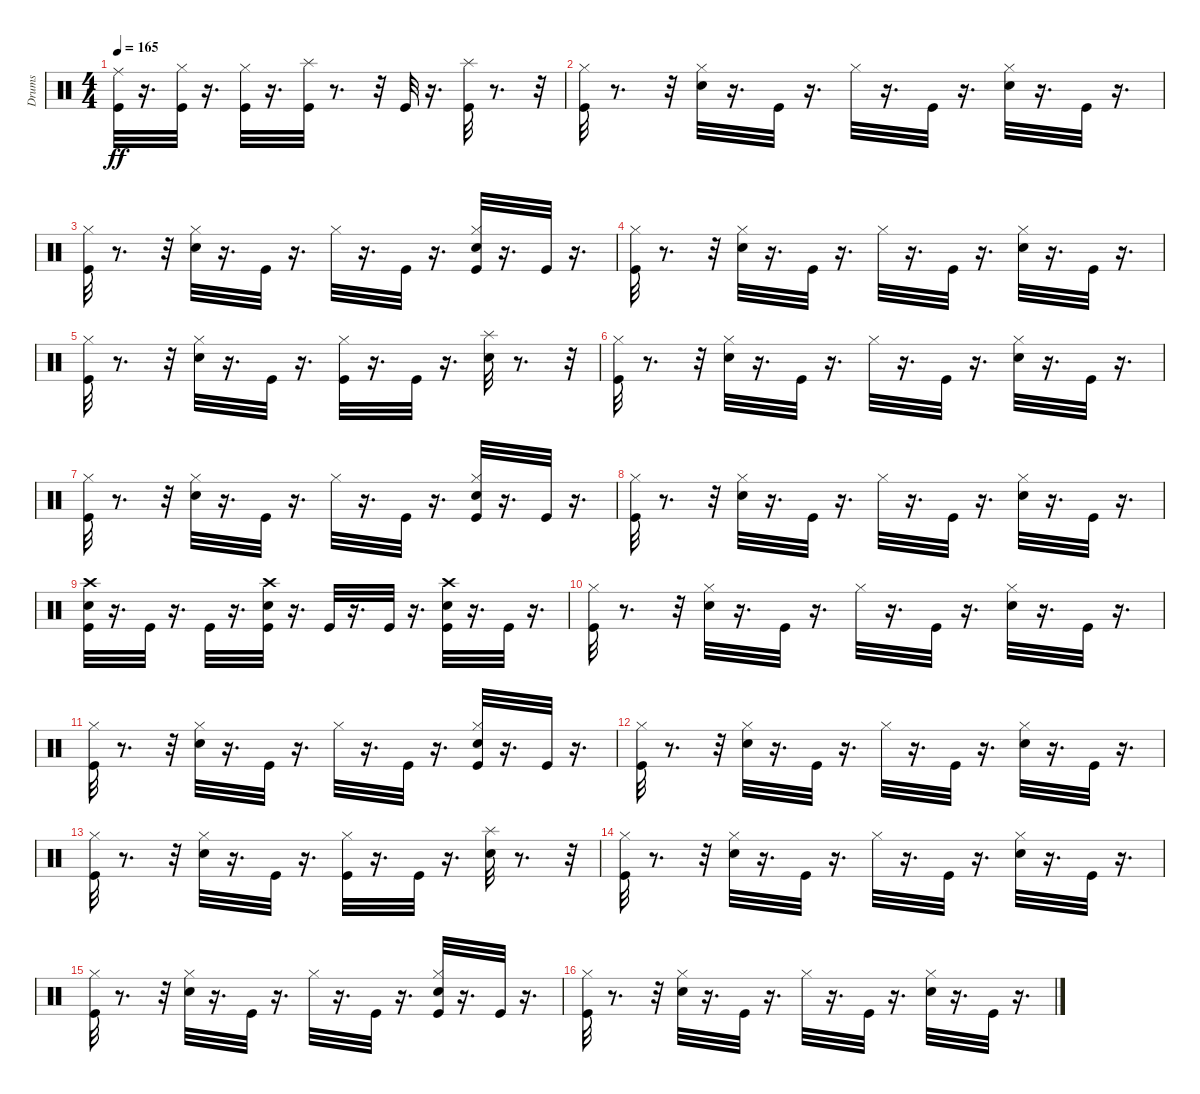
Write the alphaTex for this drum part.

\track ("Drums" "Drums") {instrument percussion}
\staff {score}
\articulation defaults
\ts (4 4)
\tempo 165
\clef neutral
\ks c
("Ride (middle)" "Kick (hit)").32{dy ff} r.16{d} ("Hi-Hat (closed)" "Kick (hit)").32 r.16{d} ("Kick (hit)" "Hi-Hat (closed)").32 r.16{d} ("Splash (hit)" "Kick (hit)").32 r.8{d} r.32 "Kick (hit)".32 r.16{d} ("Kick (hit)" "Splash (hit)").32 r.8{d} r.32 |
("Hi-Hat (closed)" "Kick (hit)").32 r.8{d} r.32 ("Hi-Hat (closed)" "Electric Snare (hit)").32 r.16{d} "Kick (hit)".32 r.16{d} "Hi-Hat (closed)".32 r.16{d} "Kick (hit)".32 r.16{d} ("Hi-Hat (closed)" "Electric Snare (hit)").32 r.16{d} "Kick (hit)".32 r.16{d} |
("Hi-Hat (closed)" "Kick (hit)").32 r.8{d} r.32 ("Electric Snare (hit)" "Hi-Hat (closed)").32 r.16{d} "Kick (hit)".32 r.16{d} "Hi-Hat (closed)".32 r.16{d} "Kick (hit)".32 r.16{d} ("Electric Snare (hit)" "Hi-Hat (closed)" "Kick (hit)").32 r.16{d} "Kick (hit)".32 r.16{d} |
("Kick (hit)" "Hi-Hat (closed)").32 r.8{d} r.32 ("Hi-Hat (closed)" "Electric Snare (hit)").32 r.16{d} "Kick (hit)".32 r.16{d} "Hi-Hat (closed)".32 r.16{d} "Kick (hit)".32 r.16{d} ("Electric Snare (hit)" "Hi-Hat (closed)").32 r.16{d} "Kick (hit)".32 r.16{d} |
("Kick (hit)" "Hi-Hat (closed)").32 r.8{d} r.32 ("Hi-Hat (closed)" "Electric Snare (hit)").32 r.16{d} "Kick (hit)".32 r.16{d} ("Kick (hit)" "Hi-Hat (closed)").32 r.16{d} "Kick (hit)".32 r.16{d} ("Splash (hit)" "Electric Snare (hit)").32 r.8{d} r.32 |
("Kick (hit)" "Hi-Hat (closed)").32 r.8{d} r.32 ("Hi-Hat (closed)" "Electric Snare (hit)").32 r.16{d} "Kick (hit)".32 r.16{d} "Hi-Hat (closed)".32 r.16{d} "Kick (hit)".32 r.16{d} ("Electric Snare (hit)" "Hi-Hat (closed)").32 r.16{d} "Kick (hit)".32 r.16{d} |
("Hi-Hat (closed)" "Kick (hit)").32 r.8{d} r.32 ("Hi-Hat (closed)" "Electric Snare (hit)").32 r.16{d} "Kick (hit)".32 r.16{d} "Hi-Hat (closed)".32 r.16{d} "Kick (hit)".32 r.16{d} ("Kick (hit)" "Hi-Hat (closed)" "Electric Snare (hit)").32 r.16{d} "Kick (hit)".32 r.16{d} |
("Kick (hit)" "Hi-Hat (closed)").32 r.8{d} r.32 ("Hi-Hat (closed)" "Electric Snare (hit)").32 r.16{d} "Kick (hit)".32 r.16{d} "Hi-Hat (closed)".32 r.16{d} "Kick (hit)".32 r.16{d} ("Electric Snare (hit)" "Hi-Hat (closed)").32 r.16{d} "Kick (hit)".32 r.16{d} |
("Kick (hit)" "Crash high (hit)" "Electric Snare (hit)").32 r.16{d} "Kick (hit)".32 r.16{d} "Kick (hit)".32 r.16{d} ("Crash high (hit)" "Electric Snare (hit)" "Kick (hit)").32 r.16{d} "Kick (hit)".32 r.16{d} "Kick (hit)".32 r.16{d} ("Electric Snare (hit)" "Kick (hit)" "Crash high (hit)").32 r.16{d} "Kick (hit)".32 r.16{d} |
("Kick (hit)" "Hi-Hat (closed)").32 r.8{d} r.32 ("Hi-Hat (closed)" "Electric Snare (hit)").32 r.16{d} "Kick (hit)".32 r.16{d} "Hi-Hat (closed)".32 r.16{d} "Kick (hit)".32 r.16{d} ("Hi-Hat (closed)" "Electric Snare (hit)").32 r.16{d} "Kick (hit)".32 r.16{d} |
("Hi-Hat (closed)" "Kick (hit)").32 r.8{d} r.32 ("Electric Snare (hit)" "Hi-Hat (closed)").32 r.16{d} "Kick (hit)".32 r.16{d} "Hi-Hat (closed)".32 r.16{d} "Kick (hit)".32 r.16{d} ("Kick (hit)" "Hi-Hat (closed)" "Electric Snare (hit)").32 r.16{d} "Kick (hit)".32 r.16{d} |
("Hi-Hat (closed)" "Kick (hit)").32 r.8{d} r.32 ("Hi-Hat (closed)" "Electric Snare (hit)").32 r.16{d} "Kick (hit)".32 r.16{d} "Hi-Hat (closed)".32 r.16{d} "Kick (hit)".32 r.16{d} ("Hi-Hat (closed)" "Electric Snare (hit)").32 r.16{d} "Kick (hit)".32 r.16{d} |
("Hi-Hat (closed)" "Kick (hit)").32 r.8{d} r.32 ("Electric Snare (hit)" "Hi-Hat (closed)").32 r.16{d} "Kick (hit)".32 r.16{d} ("Hi-Hat (closed)" "Kick (hit)").32 r.16{d} "Kick (hit)".32 r.16{d} ("Electric Snare (hit)" "Splash (hit)").32 r.8{d} r.32 |
("Hi-Hat (closed)" "Kick (hit)").32 r.8{d} r.32 ("Electric Snare (hit)" "Hi-Hat (closed)").32 r.16{d} "Kick (hit)".32 r.16{d} "Hi-Hat (closed)".32 r.16{d} "Kick (hit)".32 r.16{d} ("Hi-Hat (closed)" "Electric Snare (hit)").32 r.16{d} "Kick (hit)".32 r.16{d} |
("Hi-Hat (closed)" "Kick (hit)").32 r.8{d} r.32 ("Electric Snare (hit)" "Hi-Hat (closed)").32 r.16{d} "Kick (hit)".32 r.16{d} "Hi-Hat (closed)".32 r.16{d} "Kick (hit)".32 r.16{d} ("Hi-Hat (closed)" "Kick (hit)" "Electric Snare (hit)").32 r.16{d} "Kick (hit)".32 r.16{d} |
("Hi-Hat (closed)" "Kick (hit)").32 r.8{d} r.32 ("Hi-Hat (closed)" "Electric Snare (hit)").32 r.16{d} "Kick (hit)".32 r.16{d} "Hi-Hat (closed)".32 r.16{d} "Kick (hit)".32 r.16{d} ("Hi-Hat (closed)" "Electric Snare (hit)").32 r.16{d} "Kick (hit)".32 r.16{d}
